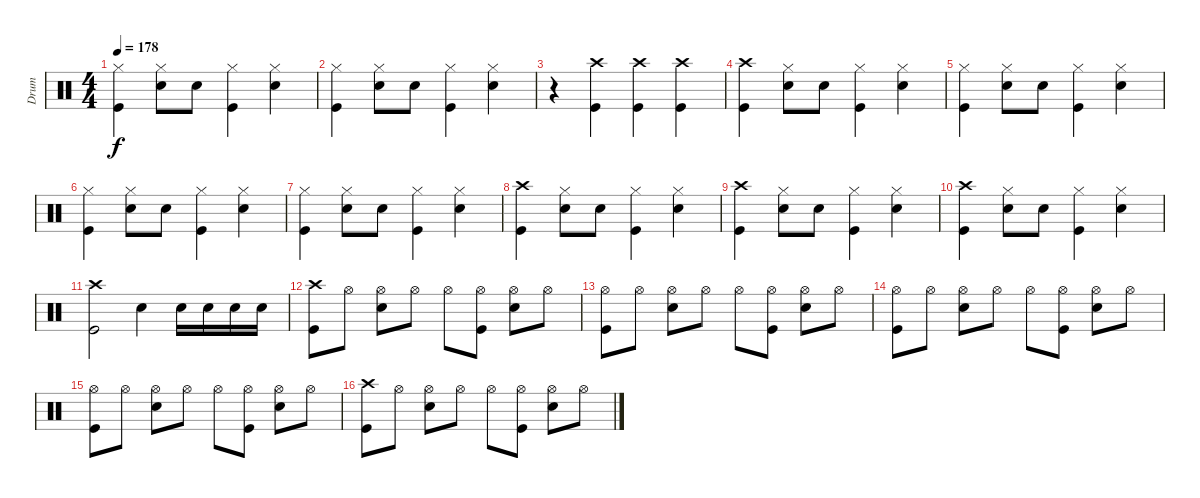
\track ("Drum" "Drum") {instrument percussion}
\staff {score}
\articulation defaults
\ts (4 4)
\tempo 178
\clef neutral
\ks c
("Hi-Hat (closed)" "Kick (hit)").4{dy f} ("Hi-Hat (closed)" "Snare (hit) 2").8 "Snare (hit) 2".8 ("Hi-Hat (closed)" "Kick (hit)").4 ("Hi-Hat (closed)" "Snare (hit) 2").4 |
("Hi-Hat (closed)" "Kick (hit)").4 ("Hi-Hat (closed)" "Snare (hit) 2").8 "Snare (hit) 2".8 ("Hi-Hat (closed)" "Kick (hit)").4 ("Hi-Hat (closed)" "Snare (hit) 2").4 |
r.4 ("Crash high (hit)" "Kick (hit)").4 ("Crash high (hit)" "Kick (hit)").4 ("Crash high (hit)" "Kick (hit)").4 |
("Crash high (hit)" "Kick (hit)").4 ("Hi-Hat (closed)" "Snare (hit) 2").8 "Snare (hit) 2".8 ("Hi-Hat (closed)" "Kick (hit)").4 ("Hi-Hat (closed)" "Snare (hit) 2").4 |
("Hi-Hat (closed)" "Kick (hit)").4 ("Hi-Hat (closed)" "Snare (hit) 2").8 "Snare (hit) 2".8 ("Hi-Hat (closed)" "Kick (hit)").4 ("Hi-Hat (closed)" "Snare (hit) 2").4 |
("Hi-Hat (closed)" "Kick (hit)").4 ("Hi-Hat (closed)" "Snare (hit) 2").8 "Snare (hit) 2".8 ("Hi-Hat (closed)" "Kick (hit)").4 ("Hi-Hat (closed)" "Snare (hit) 2").4 |
("Hi-Hat (closed)" "Kick (hit)").4 ("Hi-Hat (closed)" "Snare (hit) 2").8 "Snare (hit) 2".8 ("Hi-Hat (closed)" "Kick (hit)").4 ("Hi-Hat (closed)" "Snare (hit) 2").4 |
("Crash high (hit)" "Kick (hit)").4 ("Hi-Hat (closed)" "Snare (hit) 2").8 "Snare (hit) 2".8 ("Hi-Hat (closed)" "Kick (hit)").4 ("Hi-Hat (closed)" "Snare (hit) 2").4 |
("Crash high (hit)" "Kick (hit)").4 ("Hi-Hat (closed)" "Snare (hit) 2").8 "Snare (hit) 2".8 ("Hi-Hat (closed)" "Kick (hit)").4 ("Hi-Hat (closed)" "Snare (hit) 2").4 |
("Crash high (hit)" "Kick (hit)").4 ("Hi-Hat (closed)" "Snare (hit) 2").8 "Snare (hit) 2".8 ("Hi-Hat (closed)" "Kick (hit)").4 ("Hi-Hat (closed)" "Snare (hit) 2").4 |
("Crash high (hit)" "Kick (hit)").2 "Snare (hit) 2".4 "Snare (hit) 2".16 "Snare (hit) 2".16 "Snare (hit) 2".16 "Snare (hit) 2".16 |
("Crash high (hit)" "Kick (hit)").8 "Hi-Hat (open)".8 ("Hi-Hat (open)" "Snare (hit) 2").8 "Hi-Hat (open)".8 "Hi-Hat (open)".8 ("Hi-Hat (open)" "Kick (hit)").8 ("Hi-Hat (open)" "Snare (hit) 2").8 "Hi-Hat (open)".8 |
("Hi-Hat (open)" "Kick (hit)").8 "Hi-Hat (open)".8 ("Hi-Hat (open)" "Snare (hit) 2").8 "Hi-Hat (open)".8 "Hi-Hat (open)".8 ("Hi-Hat (open)" "Kick (hit)").8 ("Hi-Hat (open)" "Snare (hit) 2").8 "Hi-Hat (open)".8 |
("Hi-Hat (open)" "Kick (hit)").8 "Hi-Hat (open)".8 ("Hi-Hat (open)" "Snare (hit) 2").8 "Hi-Hat (open)".8 "Hi-Hat (open)".8 ("Hi-Hat (open)" "Kick (hit)").8 ("Hi-Hat (open)" "Snare (hit) 2").8 "Hi-Hat (open)".8 |
("Hi-Hat (open)" "Kick (hit)").8 "Hi-Hat (open)".8 ("Hi-Hat (open)" "Snare (hit) 2").8 "Hi-Hat (open)".8 "Hi-Hat (open)".8 ("Hi-Hat (open)" "Kick (hit)").8 ("Hi-Hat (open)" "Snare (hit) 2").8 "Hi-Hat (open)".8 |
("Crash high (hit)" "Kick (hit)").8 "Hi-Hat (open)".8 ("Hi-Hat (open)" "Snare (hit) 2").8 "Hi-Hat (open)".8 "Hi-Hat (open)".8 ("Hi-Hat (open)" "Kick (hit)").8 ("Hi-Hat (open)" "Snare (hit) 2").8 "Hi-Hat (open)".8
